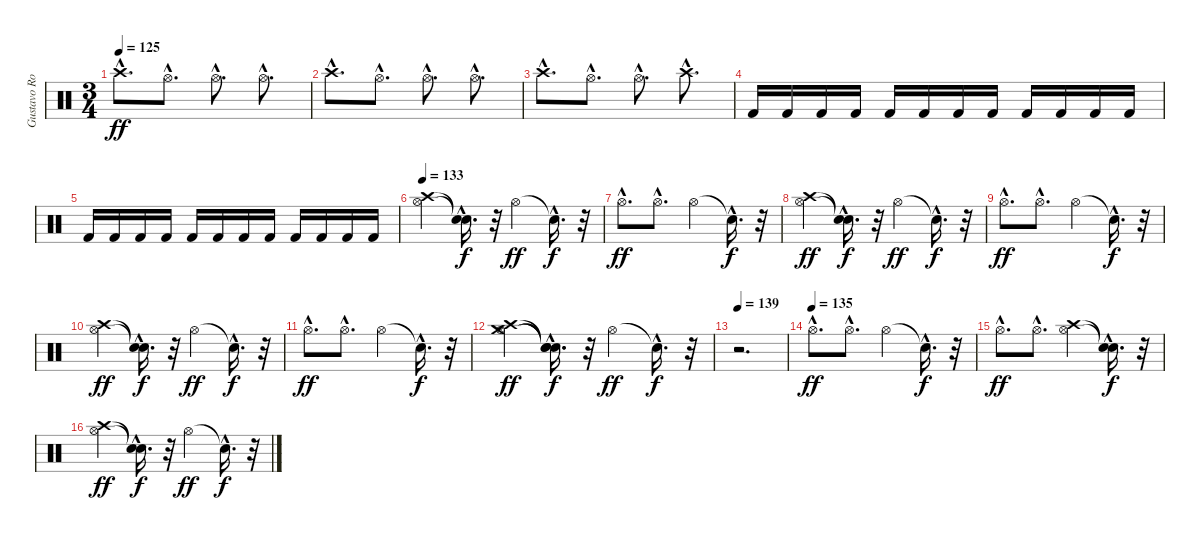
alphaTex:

\track ("Gustavo Rowek 1" "Gustavo Ro") {instrument percussion}
\staff {score}
\articulation defaults
\ts (3 4)
\tempo 125
\clef neutral
\ks c "Crash high (hit)"{hac}.8{d dy ff} "Hi-Hat (open)"{hac}.8{d} "Hi-Hat (open)"{hac}.8{d} "Hi-Hat (open)"{hac}.8{d}
|
"Crash high (hit)"{hac}.8{d} "Hi-Hat (open)"{hac}.8{d} "Hi-Hat (open)"{hac}.8{d} "Hi-Hat (open)"{hac}.8{d} |
"Crash high (hit)"{hac}.8{d} "Hi-Hat (open)"{hac}.8{d} "Hi-Hat (open)"{hac}.8{d} "Crash high (hit)"{hac}.8{d} |
"Kick (hit) 2".16 "Kick (hit) 2".16 "Kick (hit) 2".16 "Kick (hit) 2".16 "Kick (hit) 2".16 "Kick (hit) 2".16 "Kick (hit) 2".16 "Kick (hit) 2".16 "Kick (hit) 2".16 "Kick (hit) 2".16 "Kick (hit) 2".16 "Kick (hit) 2".16 |
"Kick (hit) 2".16 "Kick (hit) 2".16 "Kick (hit) 2".16 "Kick (hit) 2".16 "Kick (hit) 2".16 "Kick (hit) 2".16 "Kick (hit) 2".16 "Kick (hit) 2".16 "Kick (hit) 2".16 "Kick (hit) 2".16 "Kick (hit) 2".16 "Kick (hit) 2".16 |
\tempo 133
("Hi-Hat (open)" "Crash high (hit)").4 ("Snare (hit)"{hac t} "Snare (hit)"{hac t}).16{d dy f} r.32 "Hi-Hat (open)".4{dy ff} "Snare (hit)"{hac t}.16{d dy f} r.32 |
"Hi-Hat (open)"{hac}.8{d dy ff} "Hi-Hat (open)"{hac}.8{d} "Hi-Hat (open)".4 "Snare (hit)"{hac t}.16{d dy f} r.32 |
("Hi-Hat (open)" "Crash high (hit)").4{dy ff} ("Snare (hit)"{hac t} "Snare (hit)"{hac t}).16{d dy f} r.32 "Hi-Hat (open)".4{dy ff} "Snare (hit)"{hac t}.16{d dy f} r.32 |
"Hi-Hat (open)"{hac}.8{d dy ff} "Hi-Hat (open)"{hac}.8{d} "Hi-Hat (open)".4 "Snare (hit)"{hac t}.16{d dy f} r.32 |
("Hi-Hat (open)" "Crash high (hit)").4{dy ff} ("Snare (hit)"{hac t} "Snare (hit)"{hac t}).16{d dy f} r.32 "Hi-Hat (open)".4{dy ff} "Snare (hit)"{hac t}.16{d dy f} r.32 |
"Hi-Hat (open)"{hac}.8{d dy ff} "Hi-Hat (open)"{hac}.8{d} "Hi-Hat (open)".4 "Snare (hit)"{hac t}.16{d dy f} r.32 |
("Hi-Hat (open)" "Crash high (hit)" "Crash medium (hit)").4{dy ff} ("Snare (hit)"{hac t} "Snare (hit)"{hac t} "Snare (hit)"{hac t}).16{d dy f} r.32 "Hi-Hat (open)".4{dy ff} "Snare (hit)"{hac t}.16{d dy f} r.32 |
\tempo 139
r.2{d} |
\tempo (135)
"Hi-Hat (open)"{hac}.8{d dy ff} "Hi-Hat (open)"{hac}.8{d} "Hi-Hat (open)".4 "Snare (hit)"{hac t}.16{d dy f} r.32 |
"Hi-Hat (open)"{hac}.8{d dy ff} "Hi-Hat (open)"{hac}.8{d} ("Hi-Hat (open)" "Crash high (hit)").4 ("Snare (hit)"{hac t} "Snare (hit)"{hac t}).16{d dy f} r.32 |
("Hi-Hat (open)" "Crash high (hit)").4{dy ff} ("Snare (hit)"{hac t} "Snare (hit)"{hac t}).16{d dy f} r.32 "Hi-Hat (open)".4{dy ff} "Snare (hit)"{hac t}.16{d dy f} r.32
